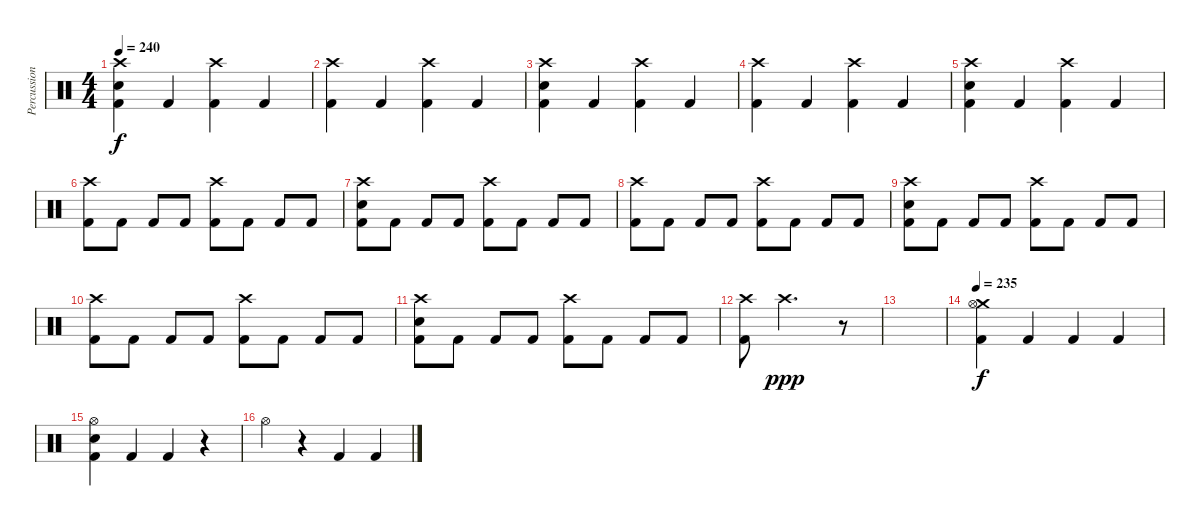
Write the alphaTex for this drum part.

\track ("Percussion" "Percussion") {instrument percussion}
\staff {score}
\articulation defaults
\ts (4 4)
\tempo 240
\clef neutral
\ks c
("Crash high (hit)" "Electric Snare (hit)" "Kick (hit) 2").4{dy f} "Kick (hit) 2".4 ("Crash high (hit)" "Kick (hit) 2").4 "Kick (hit) 2".4 |
("Crash high (hit)" "Kick (hit) 2").4 "Kick (hit) 2".4 ("Crash high (hit)" "Kick (hit) 2").4 "Kick (hit) 2".4 |
("Crash high (hit)" "Electric Snare (hit)" "Kick (hit) 2").4 "Kick (hit) 2".4 ("Crash high (hit)" "Kick (hit) 2").4 "Kick (hit) 2".4 |
("Crash high (hit)" "Kick (hit) 2").4 "Kick (hit) 2".4 ("Crash high (hit)" "Kick (hit) 2").4 "Kick (hit) 2".4 |
("Crash high (hit)" "Electric Snare (hit)" "Kick (hit) 2").4 "Kick (hit) 2".4 ("Crash high (hit)" "Kick (hit) 2").4 "Kick (hit) 2".4 |
("Crash high (hit)" "Kick (hit) 2").8 "Kick (hit) 2".8 "Kick (hit) 2".8 "Kick (hit) 2".8 ("Crash high (hit)" "Kick (hit) 2").8 "Kick (hit) 2".8 "Kick (hit) 2".8 "Kick (hit) 2".8 |
("Crash high (hit)" "Electric Snare (hit)" "Kick (hit) 2").8 "Kick (hit) 2".8 "Kick (hit) 2".8 "Kick (hit) 2".8 ("Crash high (hit)" "Kick (hit) 2").8 "Kick (hit) 2".8 "Kick (hit) 2".8 "Kick (hit) 2".8 |
("Crash high (hit)" "Kick (hit) 2").8 "Kick (hit) 2".8 "Kick (hit) 2".8 "Kick (hit) 2".8 ("Crash high (hit)" "Kick (hit) 2").8 "Kick (hit) 2".8 "Kick (hit) 2".8 "Kick (hit) 2".8 |
("Crash high (hit)" "Electric Snare (hit)" "Kick (hit) 2").8 "Kick (hit) 2".8 "Kick (hit) 2".8 "Kick (hit) 2".8 ("Crash high (hit)" "Kick (hit) 2").8 "Kick (hit) 2".8 "Kick (hit) 2".8 "Kick (hit) 2".8 |
("Crash high (hit)" "Kick (hit) 2").8 "Kick (hit) 2".8 "Kick (hit) 2".8 "Kick (hit) 2".8 ("Crash high (hit)" "Kick (hit) 2").8 "Kick (hit) 2".8 "Kick (hit) 2".8 "Kick (hit) 2".8 |
("Crash high (hit)" "Electric Snare (hit)" "Kick (hit) 2").8 "Kick (hit) 2".8 "Kick (hit) 2".8 "Kick (hit) 2".8 ("Crash high (hit)" "Kick (hit) 2").8 "Kick (hit) 2".8 "Kick (hit) 2".8 "Kick (hit) 2".8 |
("Crash high (hit)" "Kick (hit) 2").8 "Crash high (hit)".2{d dy ppp} r.8 |
|
\tempo 235
("Crash medium (hit)" "Hi-Hat (open)" "Kick (hit) 2").4{dy f} "Kick (hit) 2".4 "Kick (hit) 2".4 "Kick (hit) 2".4 |
("Hi-Hat (open)" "Electric Snare (hit)" "Kick (hit) 2").4 "Kick (hit) 2".4 "Kick (hit) 2".4 r.4 |
"Hi-Hat (open)".4 r.4 "Kick (hit) 2".4 "Kick (hit) 2".4
